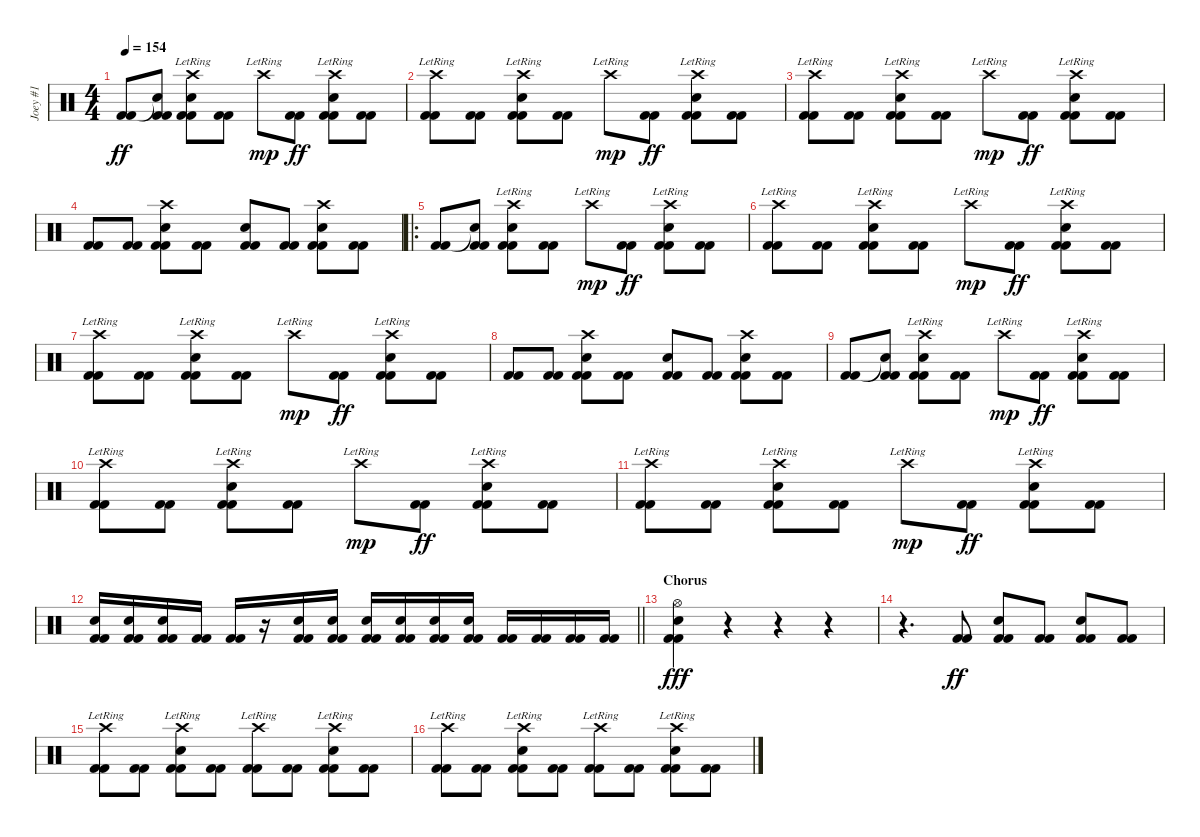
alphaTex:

\track ("Joey #1" "Joey #1") {instrument percussion}
\staff {score}
\articulation defaults
\ts (4 4)
\tempo 154
\clef neutral
\ks c
("Kick (hit) 2" "Kick (hit) 2").8{dy ff} ("Snare (hit)"{t} "Kick (hit) 2" "Kick (hit) 2").8 ("Crash high (hit)"{lr} "Snare (hit) 2" "Kick (hit) 2" "Kick (hit) 2").8 ("Kick (hit) 2" "Kick (hit) 2").8 "Crash high (hit)"{lr}.8{dy mp} ("Kick (hit) 2" "Kick (hit) 2").8{dy ff} ("Crash high (hit)"{lr} "Snare (hit) 2" "Kick (hit) 2" "Kick (hit) 2").8 ("Kick (hit) 2" "Kick (hit) 2").8 |
("Crash high (hit)"{lr} "Kick (hit) 2" "Kick (hit) 2").8 ("Kick (hit) 2" "Kick (hit) 2").8 ("Crash high (hit)"{lr} "Snare (hit) 2" "Kick (hit) 2" "Kick (hit) 2").8 ("Kick (hit) 2" "Kick (hit) 2").8 "Crash high (hit)"{lr}.8{dy mp} ("Kick (hit) 2" "Kick (hit) 2").8{dy ff} ("Crash high (hit)"{lr} "Snare (hit) 2" "Kick (hit) 2" "Kick (hit) 2").8 ("Kick (hit) 2" "Kick (hit) 2").8 |
("Crash high (hit)"{lr} "Kick (hit) 2" "Kick (hit) 2").8 ("Kick (hit) 2" "Kick (hit) 2").8 ("Crash high (hit)"{lr} "Snare (hit) 2" "Kick (hit) 2" "Kick (hit) 2").8 ("Kick (hit) 2" "Kick (hit) 2").8 "Crash high (hit)"{lr}.8{dy mp} ("Kick (hit) 2" "Kick (hit) 2").8{dy ff} ("Crash high (hit)"{lr} "Snare (hit) 2" "Kick (hit) 2" "Kick (hit) 2").8 ("Kick (hit) 2" "Kick (hit) 2").8 |
("Kick (hit) 2" "Kick (hit) 2").8 ("Kick (hit) 2" "Kick (hit) 2").8 ("Crash high (hit)" "Snare (hit) 2" "Kick (hit) 2" "Kick (hit) 2").8 ("Kick (hit) 2" "Kick (hit) 2").8 ("Snare (hit) 2" "Kick (hit) 2" "Kick (hit) 2").8 ("Kick (hit) 2" "Kick (hit) 2").8 ("Crash high (hit)" "Snare (hit) 2" "Kick (hit) 2" "Kick (hit) 2").8 ("Kick (hit) 2" "Kick (hit) 2").8 |
\ro
("Kick (hit) 2" "Kick (hit) 2").8 ("Snare (hit)"{t} "Kick (hit) 2" "Kick (hit) 2").8 ("Crash high (hit)"{lr} "Snare (hit) 2" "Kick (hit) 2" "Kick (hit) 2").8 ("Kick (hit) 2" "Kick (hit) 2").8 "Crash high (hit)"{lr}.8{dy mp} ("Kick (hit) 2" "Kick (hit) 2").8{dy ff} ("Crash high (hit)"{lr} "Snare (hit) 2" "Kick (hit) 2" "Kick (hit) 2").8 ("Kick (hit) 2" "Kick (hit) 2").8 |
("Crash high (hit)"{lr} "Kick (hit) 2" "Kick (hit) 2").8 ("Kick (hit) 2" "Kick (hit) 2").8 ("Crash high (hit)"{lr} "Snare (hit) 2" "Kick (hit) 2" "Kick (hit) 2").8 ("Kick (hit) 2" "Kick (hit) 2").8 "Crash high (hit)"{lr}.8{dy mp} ("Kick (hit) 2" "Kick (hit) 2").8{dy ff} ("Crash high (hit)"{lr} "Snare (hit) 2" "Kick (hit) 2" "Kick (hit) 2").8 ("Kick (hit) 2" "Kick (hit) 2").8 |
("Crash high (hit)"{lr} "Kick (hit) 2" "Kick (hit) 2").8 ("Kick (hit) 2" "Kick (hit) 2").8 ("Crash high (hit)"{lr} "Snare (hit) 2" "Kick (hit) 2" "Kick (hit) 2").8 ("Kick (hit) 2" "Kick (hit) 2").8 "Crash high (hit)"{lr}.8{dy mp} ("Kick (hit) 2" "Kick (hit) 2").8{dy ff} ("Crash high (hit)"{lr} "Snare (hit) 2" "Kick (hit) 2" "Kick (hit) 2").8 ("Kick (hit) 2" "Kick (hit) 2").8 |
("Kick (hit) 2" "Kick (hit) 2").8 ("Kick (hit) 2" "Kick (hit) 2").8 ("Crash high (hit)" "Snare (hit) 2" "Kick (hit) 2" "Kick (hit) 2").8 ("Kick (hit) 2" "Kick (hit) 2").8 ("Snare (hit) 2" "Kick (hit) 2" "Kick (hit) 2").8 ("Kick (hit) 2" "Kick (hit) 2").8 ("Crash high (hit)" "Snare (hit) 2" "Kick (hit) 2" "Kick (hit) 2").8 ("Kick (hit) 2" "Kick (hit) 2").8 |
("Kick (hit) 2" "Kick (hit) 2").8 ("Snare (hit)"{t} "Kick (hit) 2" "Kick (hit) 2").8 ("Crash high (hit)"{lr} "Snare (hit) 2" "Kick (hit) 2" "Kick (hit) 2").8 ("Kick (hit) 2" "Kick (hit) 2").8 "Crash high (hit)"{lr}.8{dy mp} ("Kick (hit) 2" "Kick (hit) 2").8{dy ff} ("Crash high (hit)"{lr} "Snare (hit) 2" "Kick (hit) 2" "Kick (hit) 2").8 ("Kick (hit) 2" "Kick (hit) 2").8 |
("Crash high (hit)"{lr} "Kick (hit) 2" "Kick (hit) 2").8 ("Kick (hit) 2" "Kick (hit) 2").8 ("Crash high (hit)"{lr} "Snare (hit) 2" "Kick (hit) 2" "Kick (hit) 2").8 ("Kick (hit) 2" "Kick (hit) 2").8 "Crash high (hit)"{lr}.8{dy mp} ("Kick (hit) 2" "Kick (hit) 2").8{dy ff} ("Crash high (hit)"{lr} "Snare (hit) 2" "Kick (hit) 2" "Kick (hit) 2").8 ("Kick (hit) 2" "Kick (hit) 2").8 |
("Crash high (hit)"{lr} "Kick (hit) 2" "Kick (hit) 2").8 ("Kick (hit) 2" "Kick (hit) 2").8 ("Crash high (hit)"{lr} "Snare (hit) 2" "Kick (hit) 2" "Kick (hit) 2").8 ("Kick (hit) 2" "Kick (hit) 2").8 "Crash high (hit)"{lr}.8{dy mp} ("Kick (hit) 2" "Kick (hit) 2").8{dy ff} ("Crash high (hit)"{lr} "Snare (hit) 2" "Kick (hit) 2" "Kick (hit) 2").8 ("Kick (hit) 2" "Kick (hit) 2").8 |
\barLineRight lightlight
("Snare (hit) 2" "Kick (hit) 2" "Kick (hit) 2").16 ("Snare (hit) 2" "Kick (hit) 2" "Kick (hit) 2").16 ("Snare (hit) 2" "Kick (hit) 2" "Kick (hit) 2").16 ("Kick (hit) 2" "Kick (hit) 2").16 ("Kick (hit) 2" "Kick (hit) 2").16 r.16 ("Snare (hit) 2" "Kick (hit) 2" "Kick (hit) 2").16 ("Snare (hit) 2" "Kick (hit) 2" "Kick (hit) 2").16 ("Snare (hit) 2" "Kick (hit) 2" "Kick (hit) 2").16 ("Snare (hit) 2" "Kick (hit) 2" "Kick (hit) 2").16 ("Snare (hit) 2" "Kick (hit) 2" "Kick (hit) 2").16 ("Snare (hit) 2" "Kick (hit) 2" "Kick (hit) 2").16 ("Kick (hit) 2" "Kick (hit) 2").16 ("Kick (hit) 2" "Kick (hit) 2").16 ("Kick (hit) 2" "Kick (hit) 2").16 ("Kick (hit) 2" "Kick (hit) 2").16 |
\section ("" "Chorus")
("Hi-Hat (open)" "Snare (hit) 2" "Kick (hit) 2" "Kick (hit) 2").4{dy fff} r.4 r.4 r.4 |
r.4{d} ("Kick (hit) 2" "Kick (hit) 2").8{dy ff} ("Snare (hit) 2" "Kick (hit) 2" "Kick (hit) 2").8 ("Kick (hit) 2" "Kick (hit) 2").8 ("Snare (hit) 2" "Kick (hit) 2" "Kick (hit) 2").8 ("Kick (hit) 2" "Kick (hit) 2").8 |
("Crash high (hit)"{lr} "Kick (hit) 2" "Kick (hit) 2").8 ("Kick (hit) 2" "Kick (hit) 2").8 ("Crash high (hit)"{lr} "Snare (hit) 2" "Kick (hit) 2" "Kick (hit) 2").8 ("Kick (hit) 2" "Kick (hit) 2").8 ("Crash high (hit)"{lr} "Kick (hit) 2" "Kick (hit) 2").8 ("Kick (hit) 2" "Kick (hit) 2").8 ("Crash high (hit)"{lr} "Snare (hit) 2" "Kick (hit) 2" "Kick (hit) 2").8 ("Kick (hit) 2" "Kick (hit) 2").8 |
("Crash high (hit)"{lr} "Kick (hit) 2" "Kick (hit) 2").8 ("Kick (hit) 2" "Kick (hit) 2").8 ("Crash high (hit)"{lr} "Snare (hit) 2" "Kick (hit) 2" "Kick (hit) 2").8 ("Kick (hit) 2" "Kick (hit) 2").8 ("Crash high (hit)"{lr} "Kick (hit) 2" "Kick (hit) 2").8 ("Kick (hit) 2" "Kick (hit) 2").8 ("Crash high (hit)"{lr} "Snare (hit) 2" "Kick (hit) 2" "Kick (hit) 2").8 ("Kick (hit) 2" "Kick (hit) 2").8
